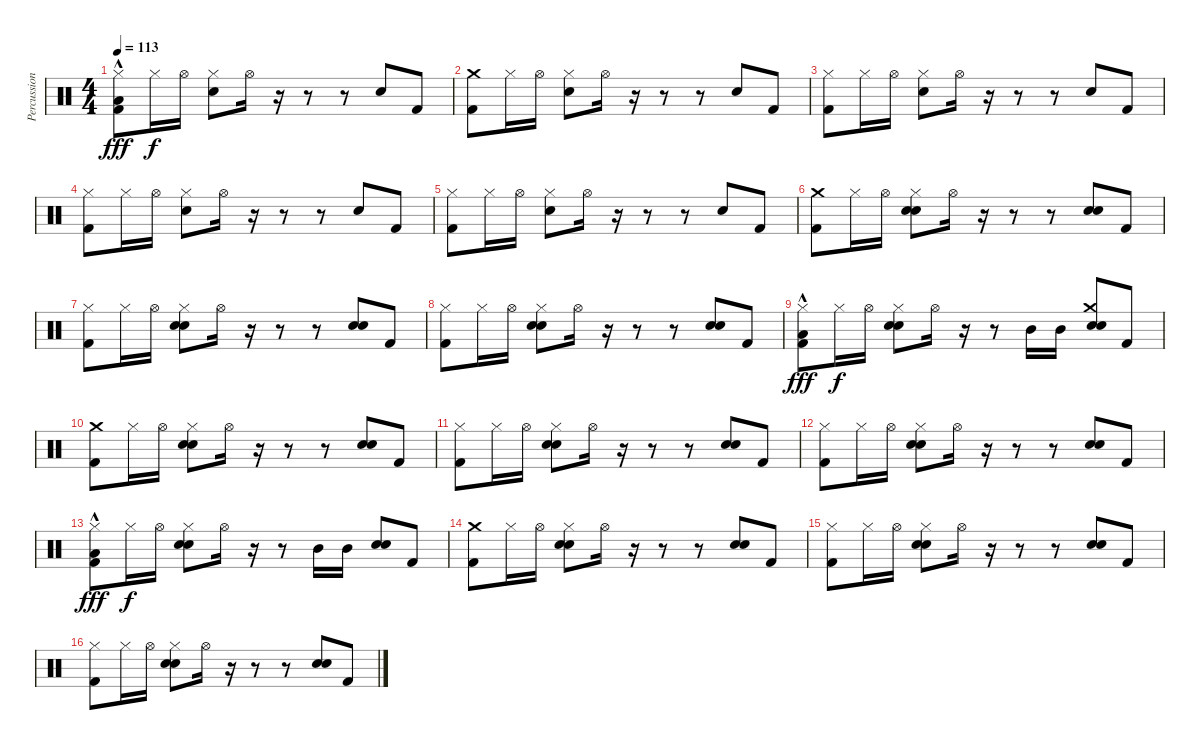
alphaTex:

\track ("Percussion Overdub" "Percussion") {instrument percussion}
\staff {score}
\articulation defaults
\ts (4 4)
\tempo 113
\clef neutral
\ks c
("Hi-Hat (closed)" "Low Tom (hit)"{hac} "Kick (hit) 2").8{dy fff} "Hi-Hat (closed)".16{dy f} "Hi-Hat (open)".16 ("Hi-Hat (closed)" "Electric Snare (hit)").8 "Hi-Hat (open)".16 r.16 r.8 r.8 "Electric Snare (hit)".8 "Kick (hit) 2".8 |
("Crash medium (hit)" "Kick (hit) 2").8 "Hi-Hat (closed)".16 "Hi-Hat (open)".16 ("Hi-Hat (closed)" "Electric Snare (hit)").8 "Hi-Hat (open)".16 r.16 r.8 r.8 "Electric Snare (hit)".8 "Kick (hit) 2".8 |
("Hi-Hat (closed)" "Kick (hit) 2").8 "Hi-Hat (closed)".16 "Hi-Hat (open)".16 ("Hi-Hat (closed)" "Electric Snare (hit)").8 "Hi-Hat (open)".16 r.16 r.8 r.8 "Electric Snare (hit)".8 "Kick (hit) 2".8 |
("Hi-Hat (closed)" "Kick (hit) 2").8 "Hi-Hat (closed)".16 "Hi-Hat (open)".16 ("Hi-Hat (closed)" "Electric Snare (hit)").8 "Hi-Hat (open)".16 r.16 r.8 r.8 "Electric Snare (hit)".8 "Kick (hit) 2".8 |
("Hi-Hat (closed)" "Kick (hit) 2").8 "Hi-Hat (closed)".16 "Hi-Hat (open)".16 ("Hi-Hat (closed)" "Electric Snare (hit)").8 "Hi-Hat (open)".16 r.16 r.8 r.8 "Electric Snare (hit)".8 "Kick (hit) 2".8 |
("Crash medium (hit)" "Kick (hit) 2").8 "Hi-Hat (closed)".16 "Hi-Hat (open)".16 ("Hi-Hat (closed)" "Hand Clap (hit)" "Electric Snare (hit)").8 "Hi-Hat (open)".16 r.16 r.8 r.8 ("Hand Clap (hit)" "Electric Snare (hit)").8 "Kick (hit) 2".8 |
("Hi-Hat (closed)" "Kick (hit) 2").8 "Hi-Hat (closed)".16 "Hi-Hat (open)".16 ("Hi-Hat (closed)" "Hand Clap (hit)" "Electric Snare (hit)").8 "Hi-Hat (open)".16 r.16 r.8 r.8 ("Hand Clap (hit)" "Electric Snare (hit)").8 "Kick (hit) 2".8 |
("Hi-Hat (closed)" "Kick (hit) 2").8 "Hi-Hat (closed)".16 "Hi-Hat (open)".16 ("Hi-Hat (closed)" "Hand Clap (hit)" "Electric Snare (hit)").8 "Hi-Hat (open)".16 r.16 r.8 r.8 ("Hand Clap (hit)" "Electric Snare (hit)").8 "Kick (hit) 2".8 |
("Hi-Hat (closed)" "Low Tom (hit)"{hac} "Kick (hit) 2").8{dy fff} "Hi-Hat (closed)".16{dy f} "Hi-Hat (open)".16 ("Hi-Hat (closed)" "Hand Clap (hit)" "Electric Snare (hit)").8 "Hi-Hat (open)".16 r.16 r.8 "Mid Tom (hit)".16 "Mid Tom (hit)".16 ("Crash medium (hit)" "Hand Clap (hit)" "Electric Snare (hit)").8 "Kick (hit) 2".8 |
("Crash medium (hit)" "Kick (hit) 2").8 "Hi-Hat (closed)".16 "Hi-Hat (open)".16 ("Hi-Hat (closed)" "Hand Clap (hit)" "Electric Snare (hit)").8 "Hi-Hat (open)".16 r.16 r.8 r.8 ("Hand Clap (hit)" "Electric Snare (hit)").8 "Kick (hit) 2".8 |
("Hi-Hat (closed)" "Kick (hit) 2").8 "Hi-Hat (closed)".16 "Hi-Hat (open)".16 ("Hi-Hat (closed)" "Hand Clap (hit)" "Electric Snare (hit)").8 "Hi-Hat (open)".16 r.16 r.8 r.8 ("Hand Clap (hit)" "Electric Snare (hit)").8 "Kick (hit) 2".8 |
("Hi-Hat (closed)" "Kick (hit) 2").8 "Hi-Hat (closed)".16 "Hi-Hat (open)".16 ("Hi-Hat (closed)" "Hand Clap (hit)" "Electric Snare (hit)").8 "Hi-Hat (open)".16 r.16 r.8 r.8 ("Hand Clap (hit)" "Electric Snare (hit)").8 "Kick (hit) 2".8 |
("Hi-Hat (closed)" "Low Tom (hit)"{hac} "Kick (hit) 2").8{dy fff} "Hi-Hat (closed)".16{dy f} "Hi-Hat (open)".16 ("Hi-Hat (closed)" "Hand Clap (hit)" "Electric Snare (hit)").8 "Hi-Hat (open)".16 r.16 r.8 "Mid Tom (hit)".16 "Mid Tom (hit)".16 ("Hand Clap (hit)" "Electric Snare (hit)").8 "Kick (hit) 2".8 |
("Crash medium (hit)" "Kick (hit) 2").8 "Hi-Hat (closed)".16 "Hi-Hat (open)".16 ("Hi-Hat (closed)" "Hand Clap (hit)" "Electric Snare (hit)").8 "Hi-Hat (open)".16 r.16 r.8 r.8 ("Hand Clap (hit)" "Electric Snare (hit)").8 "Kick (hit) 2".8 |
("Hi-Hat (closed)" "Kick (hit) 2").8 "Hi-Hat (closed)".16 "Hi-Hat (open)".16 ("Hi-Hat (closed)" "Hand Clap (hit)" "Electric Snare (hit)").8 "Hi-Hat (open)".16 r.16 r.8 r.8 ("Hand Clap (hit)" "Electric Snare (hit)").8 "Kick (hit) 2".8 |
("Hi-Hat (closed)" "Kick (hit) 2").8 "Hi-Hat (closed)".16 "Hi-Hat (open)".16 ("Hi-Hat (closed)" "Hand Clap (hit)" "Electric Snare (hit)").8 "Hi-Hat (open)".16 r.16 r.8 r.8 ("Hand Clap (hit)" "Electric Snare (hit)").8 "Kick (hit) 2".8
